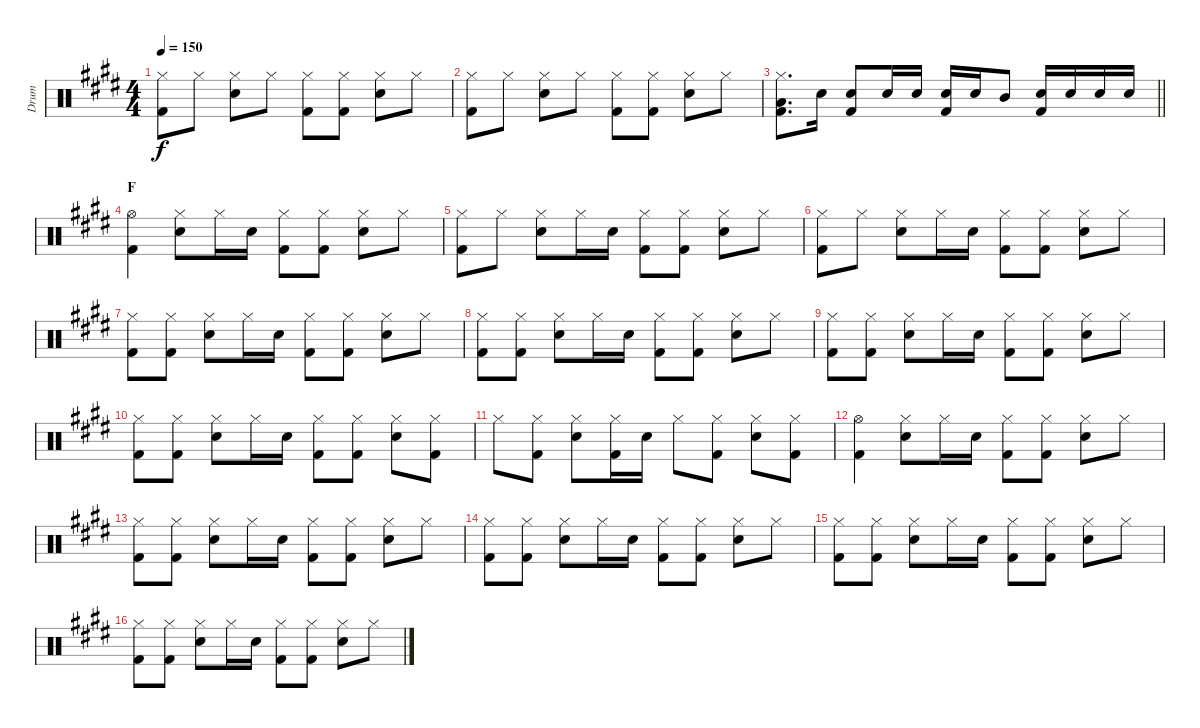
\track ("Drum" "Drum") {instrument percussion}
\staff {score}
\articulation defaults
\ts (4 4)
\tempo 150
\clef neutral
\ks c#minor
("Hi-Hat (closed)" "Kick (hit) 2").8{dy f} "Hi-Hat (closed)".8 ("Hi-Hat (closed)" "Snare (hit) 2").8 "Hi-Hat (closed)".8 ("Hi-Hat (closed)" "Kick (hit) 2").8 ("Hi-Hat (closed)" "Kick (hit) 2").8 ("Hi-Hat (closed)" "Snare (hit) 2").8 "Hi-Hat (closed)".8 |
("Hi-Hat (closed)" "Kick (hit) 2").8 "Hi-Hat (closed)".8 ("Hi-Hat (closed)" "Snare (hit) 2").8 "Hi-Hat (closed)".8 ("Hi-Hat (closed)" "Kick (hit) 2").8 ("Hi-Hat (closed)" "Kick (hit) 2").8 ("Hi-Hat (closed)" "Snare (hit) 2").8 "Hi-Hat (closed)".8 |
\barLineRight lightlight
("Hi-Hat (closed)" "Low Floor Tom (hit)" "Kick (hit) 2").8{d} "Snare (hit) 2".16 ("Snare (hit) 2" "Kick (hit) 2").8 "Snare (hit) 2".16 "Snare (hit) 2".16 ("Snare (hit) 2" "Kick (hit) 2").16 "Snare (hit) 2".16 "Mid Tom (hit)".8 ("Snare (hit) 2" "Kick (hit) 2").16 "Snare (hit) 2".16 "Snare (hit) 2".16 "Snare (hit) 2".16 |
\section ("" "F")
("Hi-Hat (open)" "Kick (hit) 2").4 ("Hi-Hat (closed)" "Snare (hit) 2").8 "Hi-Hat (closed)".16 "Snare (hit) 2".16 ("Hi-Hat (closed)" "Kick (hit) 2").8 ("Hi-Hat (closed)" "Kick (hit) 2").8 ("Hi-Hat (closed)" "Snare (hit) 2").8 "Hi-Hat (closed)".8 |
("Hi-Hat (closed)" "Kick (hit) 2").8 "Hi-Hat (closed)".8 ("Hi-Hat (closed)" "Snare (hit) 2").8 "Hi-Hat (closed)".16 "Snare (hit) 2".16 ("Hi-Hat (closed)" "Kick (hit) 2").8 ("Hi-Hat (closed)" "Kick (hit) 2").8 ("Hi-Hat (closed)" "Snare (hit) 2").8 "Hi-Hat (closed)".8 |
("Hi-Hat (closed)" "Kick (hit) 2").8 "Hi-Hat (closed)".8 ("Hi-Hat (closed)" "Snare (hit) 2").8 "Hi-Hat (closed)".16 "Snare (hit) 2".16 ("Hi-Hat (closed)" "Kick (hit) 2").8 ("Hi-Hat (closed)" "Kick (hit) 2").8 ("Hi-Hat (closed)" "Snare (hit) 2").8 "Hi-Hat (closed)".8 |
("Hi-Hat (closed)" "Kick (hit) 2").8 ("Hi-Hat (closed)" "Kick (hit) 2").8 ("Hi-Hat (closed)" "Snare (hit) 2").8 "Hi-Hat (closed)".16 "Snare (hit) 2".16 ("Hi-Hat (closed)" "Kick (hit) 2").8 ("Hi-Hat (closed)" "Kick (hit) 2").8 ("Hi-Hat (closed)" "Snare (hit) 2").8 "Hi-Hat (closed)".8 |
("Hi-Hat (closed)" "Kick (hit) 2").8 ("Hi-Hat (closed)" "Kick (hit) 2").8 ("Hi-Hat (closed)" "Snare (hit) 2").8 "Hi-Hat (closed)".16 "Snare (hit) 2".16 ("Hi-Hat (closed)" "Kick (hit) 2").8 ("Hi-Hat (closed)" "Kick (hit) 2").8 ("Hi-Hat (closed)" "Snare (hit) 2").8 "Hi-Hat (closed)".8 |
("Hi-Hat (closed)" "Kick (hit) 2").8 ("Hi-Hat (closed)" "Kick (hit) 2").8 ("Hi-Hat (closed)" "Snare (hit) 2").8 "Hi-Hat (closed)".16 "Snare (hit) 2".16 ("Hi-Hat (closed)" "Kick (hit) 2").8 ("Hi-Hat (closed)" "Kick (hit) 2").8 ("Hi-Hat (closed)" "Snare (hit) 2").8 "Hi-Hat (closed)".8 |
("Hi-Hat (closed)" "Kick (hit) 2").8 ("Hi-Hat (closed)" "Kick (hit) 2").8 ("Hi-Hat (closed)" "Snare (hit) 2").8 "Hi-Hat (closed)".16 "Snare (hit) 2".16 ("Hi-Hat (closed)" "Kick (hit) 2").8 ("Hi-Hat (closed)" "Kick (hit) 2").8 ("Hi-Hat (closed)" "Snare (hit) 2").8 ("Hi-Hat (closed)" "Kick (hit) 2").8 |
"Hi-Hat (closed)".8 ("Hi-Hat (closed)" "Kick (hit) 2").8 ("Hi-Hat (closed)" "Snare (hit) 2").8 ("Hi-Hat (closed)" "Kick (hit) 2").16 "Snare (hit) 2".16 "Hi-Hat (closed)".8 ("Hi-Hat (closed)" "Kick (hit) 2").8 ("Hi-Hat (closed)" "Snare (hit) 2").8 ("Hi-Hat (closed)" "Kick (hit) 2").8 |
("Hi-Hat (open)" "Kick (hit) 2").4 ("Hi-Hat (closed)" "Snare (hit) 2").8 "Hi-Hat (closed)".16 "Snare (hit) 2".16 ("Hi-Hat (closed)" "Kick (hit) 2").8 ("Hi-Hat (closed)" "Kick (hit) 2").8 ("Hi-Hat (closed)" "Snare (hit) 2").8 "Hi-Hat (closed)".8 |
("Hi-Hat (closed)" "Kick (hit) 2").8 ("Hi-Hat (closed)" "Kick (hit) 2").8 ("Hi-Hat (closed)" "Snare (hit) 2").8 "Hi-Hat (closed)".16 "Snare (hit) 2".16 ("Hi-Hat (closed)" "Kick (hit) 2").8 ("Hi-Hat (closed)" "Kick (hit) 2").8 ("Hi-Hat (closed)" "Snare (hit) 2").8 "Hi-Hat (closed)".8 |
("Hi-Hat (closed)" "Kick (hit) 2").8 ("Hi-Hat (closed)" "Kick (hit) 2").8 ("Hi-Hat (closed)" "Snare (hit) 2").8 "Hi-Hat (closed)".16 "Snare (hit) 2".16 ("Hi-Hat (closed)" "Kick (hit) 2").8 ("Hi-Hat (closed)" "Kick (hit) 2").8 ("Hi-Hat (closed)" "Snare (hit) 2").8 "Hi-Hat (closed)".8 |
("Hi-Hat (closed)" "Kick (hit) 2").8 ("Hi-Hat (closed)" "Kick (hit) 2").8 ("Hi-Hat (closed)" "Snare (hit) 2").8 "Hi-Hat (closed)".16 "Snare (hit) 2".16 ("Hi-Hat (closed)" "Kick (hit) 2").8 ("Hi-Hat (closed)" "Kick (hit) 2").8 ("Hi-Hat (closed)" "Snare (hit) 2").8 "Hi-Hat (closed)".8 |
("Hi-Hat (closed)" "Kick (hit) 2").8 ("Hi-Hat (closed)" "Kick (hit) 2").8 ("Hi-Hat (closed)" "Snare (hit) 2").8 "Hi-Hat (closed)".16 "Snare (hit) 2".16 ("Hi-Hat (closed)" "Kick (hit) 2").8 ("Hi-Hat (closed)" "Kick (hit) 2").8 ("Hi-Hat (closed)" "Snare (hit) 2").8 "Hi-Hat (closed)".8
